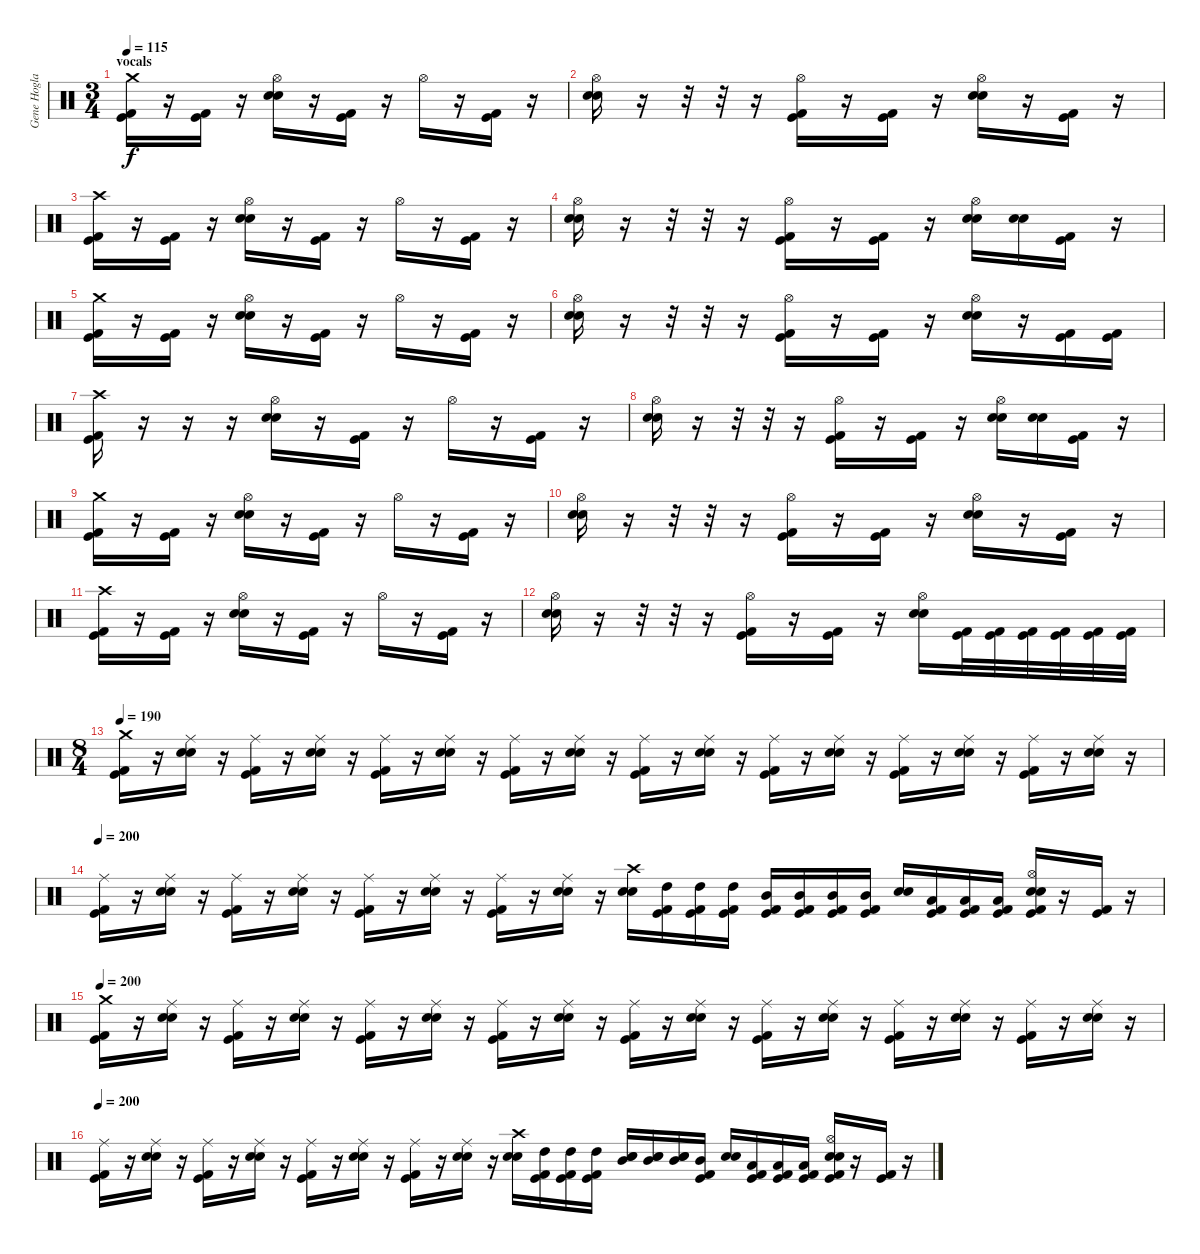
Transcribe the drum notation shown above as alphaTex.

\track ("Gene Hoglan" "Gene Hogla") {instrument percussion}
\staff {score}
\articulation defaults
\ts (3 4)
\section ("" "vocals")
\tempo 115
\clef neutral
\ks c
("Crash medium (hit)" "Kick (hit) 2" "Kick (hit)").16{dy f} r.16 ("Kick (hit) 2" "Kick (hit)").16 r.16 ("Hi-Hat (open)" "Snare (hit) 2" "Electric Snare (hit)").16 r.16 ("Kick (hit) 2" "Kick (hit)").16 r.16 "Hi-Hat (open)".16 r.16 ("Kick (hit) 2" "Kick (hit)").16 r.16 |
("Hi-Hat (open)" "Snare (hit) 2" "Electric Snare (hit)").16 r.16 r.32 r.32 r.16 ("Hi-Hat (open)" "Kick (hit)" "Kick (hit) 2").16 r.16 ("Kick (hit)" "Kick (hit) 2").16 r.16 ("Hi-Hat (open)" "Snare (hit) 2" "Electric Snare (hit)").16 r.16 ("Kick (hit) 2" "Kick (hit)").16 r.16 |
("Crash high (hit)" "Kick (hit) 2" "Kick (hit)").16 r.16 ("Kick (hit) 2" "Kick (hit)").16 r.16 ("Hi-Hat (open)" "Snare (hit) 2" "Electric Snare (hit)").16 r.16 ("Kick (hit) 2" "Kick (hit)").16 r.16 "Hi-Hat (open)".16 r.16 ("Kick (hit) 2" "Kick (hit)").16 r.16 |
("Hi-Hat (open)" "Snare (hit) 2" "Electric Snare (hit)").16 r.16 r.32 r.32 r.16 ("Hi-Hat (open)" "Kick (hit)" "Kick (hit) 2").16 r.16 ("Kick (hit)" "Kick (hit) 2").16 r.16 ("Hi-Hat (open)" "Snare (hit) 2" "Electric Snare (hit)").16 ("Snare (hit) 2" "Electric Snare (hit)").16 ("Kick (hit) 2" "Kick (hit)").16 r.16 |
("Crash medium (hit)" "Kick (hit) 2" "Kick (hit)").16 r.16 ("Kick (hit) 2" "Kick (hit)").16 r.16 ("Hi-Hat (open)" "Snare (hit) 2" "Electric Snare (hit)").16 r.16 ("Kick (hit) 2" "Kick (hit)").16 r.16 "Hi-Hat (open)".16 r.16 ("Kick (hit) 2" "Kick (hit)").16 r.16 |
("Hi-Hat (open)" "Snare (hit) 2" "Electric Snare (hit)").16 r.16 r.32 r.32 r.16 ("Hi-Hat (open)" "Kick (hit)" "Kick (hit) 2").16 r.16 ("Kick (hit)" "Kick (hit) 2").16 r.16 ("Hi-Hat (open)" "Snare (hit) 2" "Electric Snare (hit)").16 r.16 ("Kick (hit) 2" "Kick (hit)").16 ("Kick (hit) 2" "Kick (hit)").16 |
("Crash high (hit)" "Kick (hit) 2" "Kick (hit)").16 r.16 r.16 r.16 ("Hi-Hat (open)" "Snare (hit) 2" "Electric Snare (hit)").16 r.16 ("Kick (hit) 2" "Kick (hit)").16 r.16 "Hi-Hat (open)".16 r.16 ("Kick (hit) 2" "Kick (hit)").16 r.16 |
("Hi-Hat (open)" "Snare (hit) 2" "Electric Snare (hit)").16 r.16 r.32 r.32 r.16 ("Hi-Hat (open)" "Kick (hit)" "Kick (hit) 2").16 r.16 ("Kick (hit)" "Kick (hit) 2").16 r.16 ("Hi-Hat (open)" "Snare (hit) 2" "Electric Snare (hit)").16 ("Snare (hit) 2" "Electric Snare (hit)").16 ("Kick (hit) 2" "Kick (hit)").16 r.16 |
("Crash medium (hit)" "Kick (hit) 2" "Kick (hit)").16 r.16 ("Kick (hit) 2" "Kick (hit)").16 r.16 ("Hi-Hat (open)" "Snare (hit) 2" "Electric Snare (hit)").16 r.16 ("Kick (hit) 2" "Kick (hit)").16 r.16 "Hi-Hat (open)".16 r.16 ("Kick (hit) 2" "Kick (hit)").16 r.16 |
("Hi-Hat (open)" "Snare (hit) 2" "Electric Snare (hit)").16 r.16 r.32 r.32 r.16 ("Hi-Hat (open)" "Kick (hit)" "Kick (hit) 2").16 r.16 ("Kick (hit)" "Kick (hit) 2").16 r.16 ("Hi-Hat (open)" "Snare (hit) 2" "Electric Snare (hit)").16 r.16 ("Kick (hit) 2" "Kick (hit)").16 r.16 |
("Crash high (hit)" "Kick (hit) 2" "Kick (hit)").16 r.16 ("Kick (hit) 2" "Kick (hit)").16 r.16 ("Hi-Hat (open)" "Snare (hit) 2" "Electric Snare (hit)").16 r.16 ("Kick (hit) 2" "Kick (hit)").16 r.16 "Hi-Hat (open)".16 r.16 ("Kick (hit) 2" "Kick (hit)").16 r.16 |
("Hi-Hat (open)" "Snare (hit) 2" "Electric Snare (hit)").16 r.16 r.32 r.32 r.16 ("Hi-Hat (open)" "Kick (hit)" "Kick (hit) 2").16 r.16 ("Kick (hit)" "Kick (hit) 2").16 r.16 ("Hi-Hat (open)" "Snare (hit) 2" "Electric Snare (hit)").16 ("Kick (hit) 2" "Kick (hit)").32 ("Kick (hit) 2" "Kick (hit)").32 ("Kick (hit) 2" "Kick (hit)").32 ("Kick (hit) 2" "Kick (hit)").32 ("Kick (hit) 2" "Kick (hit)").32 ("Kick (hit) 2" "Kick (hit)").32 |
\ts (8 4)
\tempo 200
\tempo 190
("Crash medium (hit)" "Kick (hit) 2" "Kick (hit)").16 r.16 ("Ride (middle)" "Snare (hit) 2" "Electric Snare (hit)").16 r.16 ("Ride (middle)" "Kick (hit) 2" "Kick (hit)").16 r.16 ("Ride (middle)" "Snare (hit) 2" "Electric Snare (hit)").16 r.16 ("Ride (middle)" "Kick (hit)" "Kick (hit) 2").16 r.16 ("Ride (middle)" "Snare (hit) 2" "Electric Snare (hit)").16 r.16 ("Ride (middle)" "Kick (hit) 2" "Kick (hit)").16 r.16 ("Ride (middle)" "Snare (hit) 2" "Electric Snare (hit)").16 r.16 ("Ride (middle)" "Kick (hit) 2" "Kick (hit)").16 r.16 ("Ride (middle)" "Snare (hit) 2" "Electric Snare (hit)").16 r.16 ("Ride (middle)" "Kick (hit) 2" "Kick (hit)").16 r.16 ("Ride (middle)" "Snare (hit) 2" "Electric Snare (hit)").16 r.16 ("Ride (middle)" "Kick (hit) 2" "Kick (hit)").16 r.16 ("Ride (middle)" "Snare (hit) 2" "Electric Snare (hit)").16 r.16 ("Ride (middle)" "Kick (hit) 2" "Kick (hit)").16 r.16 ("Ride (middle)" "Snare (hit) 2" "Electric Snare (hit)").16 r.16 |
\tempo 200
("Ride (middle)" "Kick (hit) 2" "Kick (hit)").16 r.16 ("Ride (middle)" "Snare (hit) 2" "Electric Snare (hit)").16 r.16 ("Ride (middle)" "Kick (hit) 2" "Kick (hit)").16 r.16 ("Ride (middle)" "Snare (hit) 2" "Electric Snare (hit)").16 r.16 ("Ride (middle)" "Kick (hit)" "Kick (hit) 2").16 r.16 ("Ride (middle)" "Snare (hit) 2" "Electric Snare (hit)").16 r.16 ("Ride (middle)" "Kick (hit) 2" "Kick (hit)").16 r.16 ("Ride (middle)" "Snare (hit) 2" "Electric Snare (hit)").16 r.16 ("Crash high (hit)" "Snare (hit) 2" "Electric Snare (hit)").16 ("High Tom (hit)" "Kick (hit) 2" "Kick (hit)").16 ("High Tom (hit)" "Kick (hit) 2" "Kick (hit)").16 ("High Tom (hit)" "Kick (hit) 2" "Kick (hit)").16 ("Mid Tom (hit)" "Kick (hit) 2" "Kick (hit)").16 ("Mid Tom (hit)" "Kick (hit) 2" "Kick (hit)").16 ("Mid Tom (hit)" "Kick (hit) 2" "Kick (hit)").16 ("Mid Tom (hit)" "Kick (hit) 2" "Kick (hit)").16 ("Snare (hit) 2" "Electric Snare (hit)").16 ("Low Tom (hit)" "Kick (hit) 2" "Kick (hit)").16 ("Low Tom (hit)" "Kick (hit) 2" "Kick (hit)").16 ("Low Tom (hit)" "Kick (hit) 2" "Kick (hit)").16 ("Hi-Hat (open)" "Snare (hit) 2" "Electric Snare (hit)" "Kick (hit) 2" "Kick (hit)").16 r.16 ("Kick (hit) 2" "Kick (hit)").16 r.16 |
\tempo 200
("Crash medium (hit)" "Kick (hit) 2" "Kick (hit)").16 r.16 ("Ride (middle)" "Snare (hit) 2" "Electric Snare (hit)").16 r.16 ("Ride (middle)" "Kick (hit) 2" "Kick (hit)").16 r.16 ("Ride (middle)" "Snare (hit) 2" "Electric Snare (hit)").16 r.16 ("Ride (middle)" "Kick (hit)" "Kick (hit) 2").16 r.16 ("Ride (middle)" "Snare (hit) 2" "Electric Snare (hit)").16 r.16 ("Ride (middle)" "Kick (hit) 2" "Kick (hit)").16 r.16 ("Ride (middle)" "Snare (hit) 2" "Electric Snare (hit)").16 r.16 ("Ride (middle)" "Kick (hit) 2" "Kick (hit)").16 r.16 ("Ride (middle)" "Snare (hit) 2" "Electric Snare (hit)").16 r.16 ("Ride (middle)" "Kick (hit) 2" "Kick (hit)").16 r.16 ("Ride (middle)" "Snare (hit) 2" "Electric Snare (hit)").16 r.16 ("Ride (middle)" "Kick (hit) 2" "Kick (hit)").16 r.16 ("Ride (middle)" "Snare (hit) 2" "Electric Snare (hit)").16 r.16 ("Ride (middle)" "Kick (hit) 2" "Kick (hit)").16 r.16 ("Ride (middle)" "Snare (hit) 2" "Electric Snare (hit)").16 r.16 |
\tempo 200
("Ride (middle)" "Kick (hit) 2" "Kick (hit)").16 r.16 ("Ride (middle)" "Snare (hit) 2" "Electric Snare (hit)").16 r.16 ("Ride (middle)" "Kick (hit) 2" "Kick (hit)").16 r.16 ("Ride (middle)" "Snare (hit) 2" "Electric Snare (hit)").16 r.16 ("Ride (middle)" "Kick (hit)" "Kick (hit) 2").16 r.16 ("Ride (middle)" "Snare (hit) 2" "Electric Snare (hit)").16 r.16 ("Ride (middle)" "Kick (hit) 2" "Kick (hit)").16 r.16 ("Ride (middle)" "Snare (hit) 2" "Electric Snare (hit)").16 r.16 ("Crash high (hit)" "Snare (hit) 2" "Electric Snare (hit)").16 ("High Tom (hit)" "Kick (hit) 2" "Kick (hit)").16 ("High Tom (hit)" "Kick (hit) 2" "Kick (hit)").16 ("High Tom (hit)" "Kick (hit) 2" "Kick (hit)").16 ("Mid Tom (hit)" "Snare (hit) 2" "Electric Snare (hit)").16 ("Mid Tom (hit)" "Snare (hit) 2" "Electric Snare (hit)").16 ("Mid Tom (hit)" "Snare (hit) 2" "Electric Snare (hit)").16 ("Mid Tom (hit)" "Kick (hit) 2" "Kick (hit)").16 ("Snare (hit) 2" "Electric Snare (hit)").16 ("Low Tom (hit)" "Kick (hit) 2" "Kick (hit)").16 ("Low Tom (hit)" "Kick (hit) 2" "Kick (hit)").16 ("Low Tom (hit)" "Kick (hit) 2" "Kick (hit)").16 ("Hi-Hat (open)" "Snare (hit) 2" "Electric Snare (hit)" "Kick (hit) 2" "Kick (hit)").16 r.16 ("Kick (hit) 2" "Kick (hit)").16 r.16
